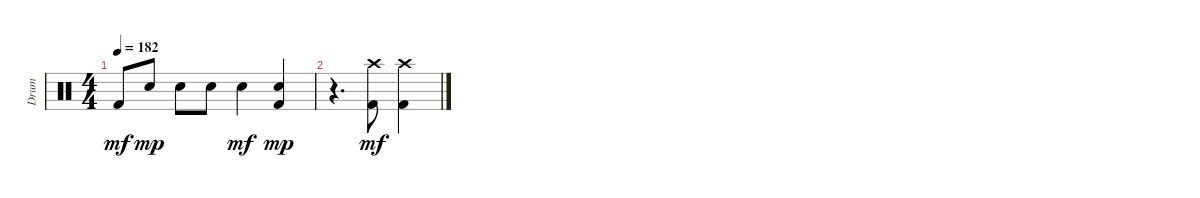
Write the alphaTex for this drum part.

\track ("Drum" "Drum") {instrument percussion}
\staff {score}
\articulation defaults
\ts (4 4)
\tempo 182
\clef neutral
\ks c "Kick (hit) 2".8{dy mf} "Snare (hit) 2".8{dy mp} "Snare (hit) 2".8 "Snare (hit) 2".8 "Snare (hit) 2".4{dy mf}
("Snare (hit) 2" "Kick (hit) 2").4{dy mp} |
r.4{d} ("Crash high (hit)" "Kick (hit) 2").8{dy mf} ("Crash high (hit)" "Kick (hit) 2").4
